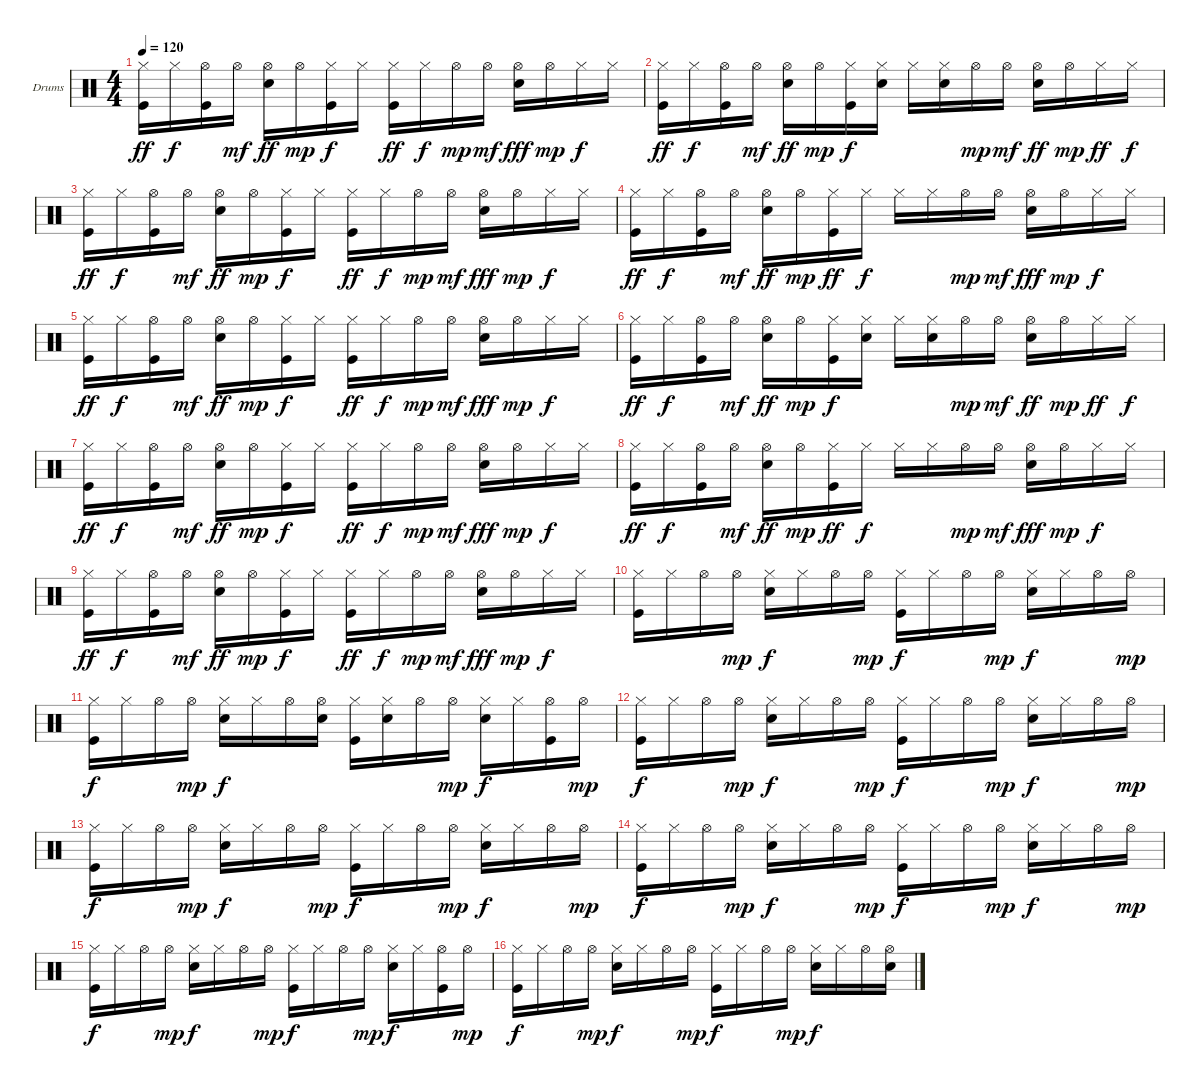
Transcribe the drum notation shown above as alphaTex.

\defaultSystemsLayout 4
\bracketExtendMode groupsimilarinstruments
\firstSystemTrackNameOrientation horizontal
\otherSystemsTrackNameOrientation horizontal
\track ("Г.Гурьянов-Ударные" "Drums") {instrument percussion}
\staff {score}
\articulation defaults
\ts (4 4)
\tempo 120
\clef neutral
\ks c
("Kick (hit)" "Hi-Hat (closed)").16{dy ff} "Hi-Hat (closed)".16{dy f} ("Kick (hit)" "Hi-Hat (open)").16 "Hi-Hat (open)".16{dy mf} ("Snare (hit) 2" "Hi-Hat (open)").16{dy ff} "Hi-Hat (open)".16{dy mp} ("Kick (hit)" "Hi-Hat (closed)").16{dy f} "Hi-Hat (closed)".16 ("Kick (hit)" "Hi-Hat (closed)").16{dy ff} "Hi-Hat (closed)".16{dy f} "Hi-Hat (open)".16{dy mp} "Hi-Hat (open)".16{dy mf} ("Snare (hit) 2" "Hi-Hat (open)").16{dy fff} "Hi-Hat (open)".16{dy mp} "Hi-Hat (closed)".16{dy f} "Hi-Hat (closed)".16 |
("Kick (hit)" "Hi-Hat (closed)").16{dy ff} "Hi-Hat (closed)".16{dy f} ("Kick (hit)" "Hi-Hat (open)").16 "Hi-Hat (open)".16{dy mf} ("Snare (hit) 2" "Hi-Hat (open)").16{dy ff} "Hi-Hat (open)".16{dy mp} ("Kick (hit)" "Hi-Hat (closed)").16{dy f} ("Snare (hit) 2" "Hi-Hat (closed)").16 "Hi-Hat (closed)".16 ("Snare (hit) 2" "Hi-Hat (closed)").16 "Hi-Hat (open)".16{dy mp} "Hi-Hat (open)".16{dy mf} ("Hi-Hat (open)" "Snare (hit) 2").16{dy ff} "Hi-Hat (open)".16{dy mp} "Hi-Hat (closed)".16{dy ff} "Hi-Hat (closed)".16{dy f} |
("Kick (hit)" "Hi-Hat (closed)").16{dy ff} "Hi-Hat (closed)".16{dy f} ("Kick (hit)" "Hi-Hat (open)").16 "Hi-Hat (open)".16{dy mf} ("Snare (hit) 2" "Hi-Hat (open)").16{dy ff} "Hi-Hat (open)".16{dy mp} ("Kick (hit)" "Hi-Hat (closed)").16{dy f} "Hi-Hat (closed)".16 ("Kick (hit)" "Hi-Hat (closed)").16{dy ff} "Hi-Hat (closed)".16{dy f} "Hi-Hat (open)".16{dy mp} "Hi-Hat (open)".16{dy mf} ("Snare (hit) 2" "Hi-Hat (open)").16{dy fff} "Hi-Hat (open)".16{dy mp} "Hi-Hat (closed)".16{dy f} "Hi-Hat (closed)".16 |
("Kick (hit)" "Hi-Hat (closed)").16{dy ff} "Hi-Hat (closed)".16{dy f} ("Kick (hit)" "Hi-Hat (open)").16 "Hi-Hat (open)".16{dy mf} ("Snare (hit) 2" "Hi-Hat (open)").16{dy ff} "Hi-Hat (open)".16{dy mp} ("Kick (hit)" "Hi-Hat (closed)").16{dy ff} "Hi-Hat (closed)".16{dy f} "Hi-Hat (closed)".16 "Hi-Hat (closed)".16 "Hi-Hat (open)".16{dy mp} "Hi-Hat (open)".16{dy mf} ("Snare (hit) 2" "Hi-Hat (open)").16{dy fff} "Hi-Hat (open)".16{dy mp} "Hi-Hat (closed)".16{dy f} "Hi-Hat (closed)".16 |
("Kick (hit)" "Hi-Hat (closed)").16{dy ff} "Hi-Hat (closed)".16{dy f} ("Kick (hit)" "Hi-Hat (open)").16 "Hi-Hat (open)".16{dy mf} ("Snare (hit) 2" "Hi-Hat (open)").16{dy ff} "Hi-Hat (open)".16{dy mp} ("Kick (hit)" "Hi-Hat (closed)").16{dy f} "Hi-Hat (closed)".16 ("Kick (hit)" "Hi-Hat (closed)").16{dy ff} "Hi-Hat (closed)".16{dy f} "Hi-Hat (open)".16{dy mp} "Hi-Hat (open)".16{dy mf} ("Snare (hit) 2" "Hi-Hat (open)").16{dy fff} "Hi-Hat (open)".16{dy mp} "Hi-Hat (closed)".16{dy f} "Hi-Hat (closed)".16 |
("Kick (hit)" "Hi-Hat (closed)").16{dy ff} "Hi-Hat (closed)".16{dy f} ("Kick (hit)" "Hi-Hat (open)").16 "Hi-Hat (open)".16{dy mf} ("Snare (hit) 2" "Hi-Hat (open)").16{dy ff} "Hi-Hat (open)".16{dy mp} ("Kick (hit)" "Hi-Hat (closed)").16{dy f} ("Snare (hit) 2" "Hi-Hat (closed)").16 "Hi-Hat (closed)".16 ("Snare (hit) 2" "Hi-Hat (closed)").16 "Hi-Hat (open)".16{dy mp} "Hi-Hat (open)".16{dy mf} ("Hi-Hat (open)" "Snare (hit) 2").16{dy ff} "Hi-Hat (open)".16{dy mp} "Hi-Hat (closed)".16{dy ff} "Hi-Hat (closed)".16{dy f} |
("Kick (hit)" "Hi-Hat (closed)").16{dy ff} "Hi-Hat (closed)".16{dy f} ("Kick (hit)" "Hi-Hat (open)").16 "Hi-Hat (open)".16{dy mf} ("Snare (hit) 2" "Hi-Hat (open)").16{dy ff} "Hi-Hat (open)".16{dy mp} ("Kick (hit)" "Hi-Hat (closed)").16{dy f} "Hi-Hat (closed)".16 ("Kick (hit)" "Hi-Hat (closed)").16{dy ff} "Hi-Hat (closed)".16{dy f} "Hi-Hat (open)".16{dy mp} "Hi-Hat (open)".16{dy mf} ("Snare (hit) 2" "Hi-Hat (open)").16{dy fff} "Hi-Hat (open)".16{dy mp} "Hi-Hat (closed)".16{dy f} "Hi-Hat (closed)".16 |
("Kick (hit)" "Hi-Hat (closed)").16{dy ff} "Hi-Hat (closed)".16{dy f} ("Kick (hit)" "Hi-Hat (open)").16 "Hi-Hat (open)".16{dy mf} ("Snare (hit) 2" "Hi-Hat (open)").16{dy ff} "Hi-Hat (open)".16{dy mp} ("Kick (hit)" "Hi-Hat (closed)").16{dy ff} "Hi-Hat (closed)".16{dy f} "Hi-Hat (closed)".16 "Hi-Hat (closed)".16 "Hi-Hat (open)".16{dy mp} "Hi-Hat (open)".16{dy mf} ("Snare (hit) 2" "Hi-Hat (open)").16{dy fff} "Hi-Hat (open)".16{dy mp} "Hi-Hat (closed)".16{dy f} "Hi-Hat (closed)".16 |
("Kick (hit)" "Hi-Hat (closed)").16{dy ff} "Hi-Hat (closed)".16{dy f} ("Kick (hit)" "Hi-Hat (open)").16 "Hi-Hat (open)".16{dy mf} ("Snare (hit) 2" "Hi-Hat (open)").16{dy ff} "Hi-Hat (open)".16{dy mp} ("Kick (hit)" "Hi-Hat (closed)").16{dy f} "Hi-Hat (closed)".16 ("Kick (hit)" "Hi-Hat (closed)").16{dy ff} "Hi-Hat (closed)".16{dy f} "Hi-Hat (open)".16{dy mp} "Hi-Hat (open)".16{dy mf} ("Snare (hit) 2" "Hi-Hat (open)").16{dy fff} "Hi-Hat (open)".16{dy mp} "Hi-Hat (closed)".16{dy f} "Hi-Hat (closed)".16 |
("Hi-Hat (closed)" "Kick (hit)").16 "Hi-Hat (closed)".16 "Hi-Hat (open)".16 "Hi-Hat (open)".16{dy mp} ("Hi-Hat (closed)" "Snare (hit) 2").16{dy f} "Hi-Hat (closed)".16 "Hi-Hat (open)".16 "Hi-Hat (open)".16{dy mp} ("Kick (hit)" "Hi-Hat (closed)").16{dy f} "Hi-Hat (closed)".16 "Hi-Hat (open)".16 "Hi-Hat (open)".16{dy mp} ("Hi-Hat (closed)" "Snare (hit) 2").16{dy f} "Hi-Hat (closed)".16 "Hi-Hat (open)".16 "Hi-Hat (open)".16{dy mp} |
("Hi-Hat (closed)" "Kick (hit)").16{dy f} "Hi-Hat (closed)".16 "Hi-Hat (open)".16 "Hi-Hat (open)".16{dy mp} ("Hi-Hat (closed)" "Snare (hit) 2").16{dy f} "Hi-Hat (closed)".16 "Hi-Hat (open)".16 ("Snare (hit) 2" "Hi-Hat (open)").16 ("Kick (hit)" "Hi-Hat (closed)").16 ("Snare (hit) 2" "Hi-Hat (closed)").16 "Hi-Hat (open)".16 "Hi-Hat (open)".16{dy mp} ("Hi-Hat (closed)" "Snare (hit) 2").16{dy f} "Hi-Hat (closed)".16 ("Kick (hit)" "Hi-Hat (open)").16 "Hi-Hat (open)".16{dy mp} |
("Hi-Hat (closed)" "Kick (hit)").16{dy f} "Hi-Hat (closed)".16 "Hi-Hat (open)".16 "Hi-Hat (open)".16{dy mp} ("Hi-Hat (closed)" "Snare (hit) 2").16{dy f} "Hi-Hat (closed)".16 "Hi-Hat (open)".16 "Hi-Hat (open)".16{dy mp} ("Kick (hit)" "Hi-Hat (closed)").16{dy f} "Hi-Hat (closed)".16 "Hi-Hat (open)".16 "Hi-Hat (open)".16{dy mp} ("Hi-Hat (closed)" "Snare (hit) 2").16{dy f} "Hi-Hat (closed)".16 "Hi-Hat (open)".16 "Hi-Hat (open)".16{dy mp} |
("Hi-Hat (closed)" "Kick (hit)").16{dy f} "Hi-Hat (closed)".16 "Hi-Hat (open)".16 "Hi-Hat (open)".16{dy mp} ("Hi-Hat (closed)" "Snare (hit) 2").16{dy f} "Hi-Hat (closed)".16 "Hi-Hat (open)".16 "Hi-Hat (open)".16{dy mp} ("Kick (hit)" "Hi-Hat (closed)").16{dy f} "Hi-Hat (closed)".16 "Hi-Hat (open)".16 "Hi-Hat (open)".16{dy mp} ("Hi-Hat (closed)" "Snare (hit) 2").16{dy f} "Hi-Hat (closed)".16 "Hi-Hat (open)".16 "Hi-Hat (open)".16{dy mp} |
("Hi-Hat (closed)" "Kick (hit)").16{dy f} "Hi-Hat (closed)".16 "Hi-Hat (open)".16 "Hi-Hat (open)".16{dy mp} ("Hi-Hat (closed)" "Snare (hit) 2").16{dy f} "Hi-Hat (closed)".16 "Hi-Hat (open)".16 "Hi-Hat (open)".16{dy mp} ("Kick (hit)" "Hi-Hat (closed)").16{dy f} "Hi-Hat (closed)".16 "Hi-Hat (open)".16 "Hi-Hat (open)".16{dy mp} ("Hi-Hat (closed)" "Snare (hit) 2").16{dy f} "Hi-Hat (closed)".16 "Hi-Hat (open)".16 "Hi-Hat (open)".16{dy mp} |
("Hi-Hat (closed)" "Kick (hit)").16{dy f} "Hi-Hat (closed)".16 "Hi-Hat (open)".16 "Hi-Hat (open)".16{dy mp} ("Snare (hit) 2" "Hi-Hat (closed)").16{dy f} "Hi-Hat (closed)".16 "Hi-Hat (open)".16 "Hi-Hat (open)".16{dy mp} ("Kick (hit)" "Hi-Hat (closed)").16{dy f} "Hi-Hat (closed)".16 "Hi-Hat (open)".16 "Hi-Hat (open)".16{dy mp} ("Hi-Hat (closed)" "Snare (hit) 2").16{dy f} "Hi-Hat (closed)".16 ("Kick (hit)" "Hi-Hat (open)").16 "Hi-Hat (open)".16{dy mp} |
("Hi-Hat (closed)" "Kick (hit)").16{dy f} "Hi-Hat (closed)".16 "Hi-Hat (open)".16 "Hi-Hat (open)".16{dy mp} ("Hi-Hat (closed)" "Snare (hit) 2").16{dy f} "Hi-Hat (closed)".16 "Hi-Hat (open)".16 "Hi-Hat (open)".16{dy mp} ("Kick (hit)" "Hi-Hat (closed)").16{dy f} "Hi-Hat (closed)".16 "Hi-Hat (open)".16 "Hi-Hat (open)".16{dy mp} ("Hi-Hat (closed)" "Snare (hit) 2").16{dy f} "Hi-Hat (closed)".16 "Hi-Hat (open)".16 ("Snare (hit) 2" "Hi-Hat (open)").16
